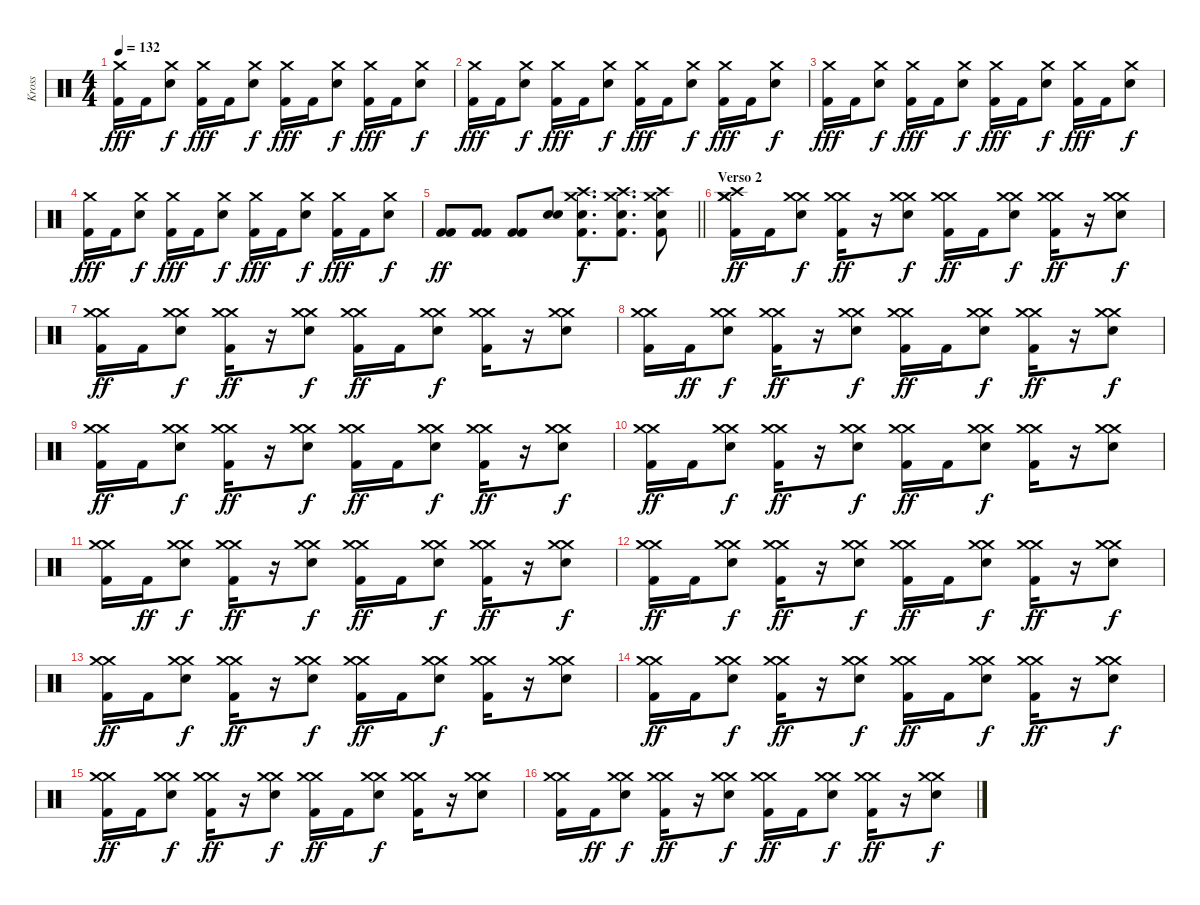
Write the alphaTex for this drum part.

\track ("Kross" "Kross") {instrument percussion}
\staff {score}
\articulation defaults
\ts (4 4)
\tempo 132
\clef neutral
\ks c
("Kick (hit) 2" "Crash medium (hit)").16{dy fff} "Kick (hit) 2".16 ("Crash medium (hit)" "Electric Snare (hit)").8{dy f} ("Kick (hit) 2" "Crash medium (hit)").16{dy fff} "Kick (hit) 2".16 ("Crash medium (hit)" "Electric Snare (hit)").8{dy f} ("Kick (hit) 2" "Crash medium (hit)").16{dy fff} "Kick (hit) 2".16 ("Crash medium (hit)" "Electric Snare (hit)").8{dy f} ("Kick (hit) 2" "Crash medium (hit)").16{dy fff} "Kick (hit) 2".16 ("Crash medium (hit)" "Electric Snare (hit)").8{dy f} |
("Kick (hit) 2" "Crash medium (hit)").16{dy fff} "Kick (hit) 2".16 ("Crash medium (hit)" "Electric Snare (hit)").8{dy f} ("Kick (hit) 2" "Crash medium (hit)").16{dy fff} "Kick (hit) 2".16 ("Crash medium (hit)" "Electric Snare (hit)").8{dy f} ("Kick (hit) 2" "Crash medium (hit)").16{dy fff} "Kick (hit) 2".16 ("Crash medium (hit)" "Electric Snare (hit)").8{dy f} ("Kick (hit) 2" "Crash medium (hit)").16{dy fff} "Kick (hit) 2".16 ("Crash medium (hit)" "Electric Snare (hit)").8{dy f} |
("Kick (hit) 2" "Crash medium (hit)").16{dy fff} "Kick (hit) 2".16 ("Crash medium (hit)" "Electric Snare (hit)").8{dy f} ("Kick (hit) 2" "Crash medium (hit)").16{dy fff} "Kick (hit) 2".16 ("Crash medium (hit)" "Electric Snare (hit)").8{dy f} ("Kick (hit) 2" "Crash medium (hit)").16{dy fff} "Kick (hit) 2".16 ("Crash medium (hit)" "Electric Snare (hit)").8{dy f} ("Kick (hit) 2" "Crash medium (hit)").16{dy fff} "Kick (hit) 2".16 ("Crash medium (hit)" "Electric Snare (hit)").8{dy f} |
("Kick (hit) 2" "Crash medium (hit)").16{dy fff} "Kick (hit) 2".16 ("Crash medium (hit)" "Electric Snare (hit)").8{dy f} ("Kick (hit) 2" "Crash medium (hit)").16{dy fff} "Kick (hit) 2".16 ("Crash medium (hit)" "Electric Snare (hit)").8{dy f} ("Kick (hit) 2" "Crash medium (hit)").16{dy fff} "Kick (hit) 2".16 ("Crash medium (hit)" "Electric Snare (hit)").8{dy f} ("Kick (hit) 2" "Crash medium (hit)").16{dy fff} "Kick (hit) 2".16 ("Crash medium (hit)" "Electric Snare (hit)").8{dy f} |
\barLineRight lightlight
("Kick (hit) 2" "Kick (hit) 2").8{dy ff} ("Kick (hit) 2" "Kick (hit) 2").8 ("Kick (hit) 2" "Kick (hit) 2").8 ("Electric Snare (hit)" "Electric Snare (hit)").8 ("Kick (hit) 2" "Crash high (hit)" "Crash medium (hit)" "Electric Snare (hit)").8{d dy f} ("Kick (hit) 2" "Crash high (hit)" "Crash medium (hit)" "Electric Snare (hit)").8{d} ("Kick (hit) 2" "Crash high (hit)" "Crash medium (hit)" "Electric Snare (hit)").8 |
\section ("" "Verso 2")
("Crash high (hit)" "Kick (hit) 2" "Crash medium (hit)" "Crash medium (hit)").16{dy ff} "Kick (hit) 2".16 ("Crash medium (hit)" "Crash medium (hit)" "Electric Snare (hit)").8{dy f} ("Kick (hit) 2" "Crash medium (hit)" "Crash medium (hit)").16{dy ff} r.16 ("Crash medium (hit)" "Crash medium (hit)" "Electric Snare (hit)").8{dy f} ("Kick (hit) 2" "Crash medium (hit)" "Crash medium (hit)").16{dy ff} "Kick (hit) 2".16 ("Crash medium (hit)" "Crash medium (hit)" "Electric Snare (hit)").8{dy f} ("Kick (hit) 2" "Crash medium (hit)" "Crash medium (hit)").16{dy ff} r.16 ("Crash medium (hit)" "Crash medium (hit)" "Electric Snare (hit)").8{dy f} |
("Kick (hit) 2" "Crash medium (hit)" "Crash medium (hit)").16{dy ff} "Kick (hit) 2".16 ("Crash medium (hit)" "Crash medium (hit)" "Electric Snare (hit)").8{dy f} ("Kick (hit) 2" "Crash medium (hit)" "Crash medium (hit)").16{dy ff} r.16 ("Crash medium (hit)" "Crash medium (hit)" "Electric Snare (hit)").8{dy f} ("Kick (hit) 2" "Crash medium (hit)" "Crash medium (hit)").16{dy ff} "Kick (hit) 2".16 ("Crash medium (hit)" "Crash medium (hit)" "Electric Snare (hit)").8{dy f} ("Kick (hit) 2" "Crash medium (hit)" "Crash medium (hit)").16 r.16 ("Crash medium (hit)" "Crash medium (hit)" "Electric Snare (hit)").8 |
("Kick (hit) 2" "Crash medium (hit)" "Crash medium (hit)").16 "Kick (hit) 2".16{dy ff} ("Crash medium (hit)" "Crash medium (hit)" "Electric Snare (hit)").8{dy f} ("Kick (hit) 2" "Crash medium (hit)" "Crash medium (hit)").16{dy ff} r.16 ("Crash medium (hit)" "Crash medium (hit)" "Electric Snare (hit)").8{dy f} ("Kick (hit) 2" "Crash medium (hit)" "Crash medium (hit)").16{dy ff} "Kick (hit) 2".16 ("Crash medium (hit)" "Crash medium (hit)" "Electric Snare (hit)").8{dy f} ("Kick (hit) 2" "Crash medium (hit)" "Crash medium (hit)").16{dy ff} r.16 ("Crash medium (hit)" "Crash medium (hit)" "Electric Snare (hit)").8{dy f} |
("Kick (hit) 2" "Crash medium (hit)" "Crash medium (hit)").16{dy ff} "Kick (hit) 2".16 ("Crash medium (hit)" "Crash medium (hit)" "Electric Snare (hit)").8{dy f} ("Kick (hit) 2" "Crash medium (hit)" "Crash medium (hit)").16{dy ff} r.16 ("Crash medium (hit)" "Crash medium (hit)" "Electric Snare (hit)").8{dy f} ("Kick (hit) 2" "Crash medium (hit)" "Crash medium (hit)").16{dy ff} "Kick (hit) 2".16 ("Crash medium (hit)" "Crash medium (hit)" "Electric Snare (hit)").8{dy f} ("Kick (hit) 2" "Crash medium (hit)" "Crash medium (hit)").16{dy ff} r.16 ("Crash medium (hit)" "Crash medium (hit)" "Electric Snare (hit)").8{dy f} |
("Kick (hit) 2" "Crash medium (hit)" "Crash medium (hit)").16{dy ff} "Kick (hit) 2".16 ("Crash medium (hit)" "Crash medium (hit)" "Electric Snare (hit)").8{dy f} ("Kick (hit) 2" "Crash medium (hit)" "Crash medium (hit)").16{dy ff} r.16 ("Crash medium (hit)" "Crash medium (hit)" "Electric Snare (hit)").8{dy f} ("Kick (hit) 2" "Crash medium (hit)" "Crash medium (hit)").16{dy ff} "Kick (hit) 2".16 ("Crash medium (hit)" "Crash medium (hit)" "Electric Snare (hit)").8{dy f} ("Kick (hit) 2" "Crash medium (hit)" "Crash medium (hit)").16 r.16 ("Crash medium (hit)" "Crash medium (hit)" "Electric Snare (hit)").8 |
("Kick (hit) 2" "Crash medium (hit)" "Crash medium (hit)").16 "Kick (hit) 2".16{dy ff} ("Crash medium (hit)" "Crash medium (hit)" "Electric Snare (hit)").8{dy f} ("Kick (hit) 2" "Crash medium (hit)" "Crash medium (hit)").16{dy ff} r.16 ("Crash medium (hit)" "Crash medium (hit)" "Electric Snare (hit)").8{dy f} ("Kick (hit) 2" "Crash medium (hit)" "Crash medium (hit)").16{dy ff} "Kick (hit) 2".16 ("Crash medium (hit)" "Crash medium (hit)" "Electric Snare (hit)").8{dy f} ("Kick (hit) 2" "Crash medium (hit)" "Crash medium (hit)").16{dy ff} r.16 ("Crash medium (hit)" "Crash medium (hit)" "Electric Snare (hit)").8{dy f} |
("Kick (hit) 2" "Crash medium (hit)" "Crash medium (hit)").16{dy ff} "Kick (hit) 2".16 ("Crash medium (hit)" "Crash medium (hit)" "Electric Snare (hit)").8{dy f} ("Kick (hit) 2" "Crash medium (hit)" "Crash medium (hit)").16{dy ff} r.16 ("Crash medium (hit)" "Crash medium (hit)" "Electric Snare (hit)").8{dy f} ("Kick (hit) 2" "Crash medium (hit)" "Crash medium (hit)").16{dy ff} "Kick (hit) 2".16 ("Crash medium (hit)" "Crash medium (hit)" "Electric Snare (hit)").8{dy f} ("Kick (hit) 2" "Crash medium (hit)" "Crash medium (hit)").16{dy ff} r.16 ("Crash medium (hit)" "Crash medium (hit)" "Electric Snare (hit)").8{dy f} |
("Kick (hit) 2" "Crash medium (hit)" "Crash medium (hit)").16{dy ff} "Kick (hit) 2".16 ("Crash medium (hit)" "Crash medium (hit)" "Electric Snare (hit)").8{dy f} ("Kick (hit) 2" "Crash medium (hit)" "Crash medium (hit)").16{dy ff} r.16 ("Crash medium (hit)" "Crash medium (hit)" "Electric Snare (hit)").8{dy f} ("Kick (hit) 2" "Crash medium (hit)" "Crash medium (hit)").16{dy ff} "Kick (hit) 2".16 ("Crash medium (hit)" "Crash medium (hit)" "Electric Snare (hit)").8{dy f} ("Kick (hit) 2" "Crash medium (hit)" "Crash medium (hit)").16 r.16 ("Crash medium (hit)" "Crash medium (hit)" "Electric Snare (hit)").8 |
("Kick (hit) 2" "Crash medium (hit)" "Crash medium (hit)").16{dy ff} "Kick (hit) 2".16 ("Crash medium (hit)" "Crash medium (hit)" "Electric Snare (hit)").8{dy f} ("Kick (hit) 2" "Crash medium (hit)" "Crash medium (hit)").16{dy ff} r.16 ("Crash medium (hit)" "Crash medium (hit)" "Electric Snare (hit)").8{dy f} ("Kick (hit) 2" "Crash medium (hit)" "Crash medium (hit)").16{dy ff} "Kick (hit) 2".16 ("Crash medium (hit)" "Crash medium (hit)" "Electric Snare (hit)").8{dy f} ("Kick (hit) 2" "Crash medium (hit)" "Crash medium (hit)").16{dy ff} r.16 ("Crash medium (hit)" "Crash medium (hit)" "Electric Snare (hit)").8{dy f} |
("Kick (hit) 2" "Crash medium (hit)" "Crash medium (hit)").16{dy ff} "Kick (hit) 2".16 ("Crash medium (hit)" "Crash medium (hit)" "Electric Snare (hit)").8{dy f} ("Kick (hit) 2" "Crash medium (hit)" "Crash medium (hit)").16{dy ff} r.16 ("Crash medium (hit)" "Crash medium (hit)" "Electric Snare (hit)").8{dy f} ("Kick (hit) 2" "Crash medium (hit)" "Crash medium (hit)").16{dy ff} "Kick (hit) 2".16 ("Crash medium (hit)" "Crash medium (hit)" "Electric Snare (hit)").8{dy f} ("Kick (hit) 2" "Crash medium (hit)" "Crash medium (hit)").16 r.16 ("Crash medium (hit)" "Crash medium (hit)" "Electric Snare (hit)").8 |
("Kick (hit) 2" "Crash medium (hit)" "Crash medium (hit)").16 "Kick (hit) 2".16{dy ff} ("Crash medium (hit)" "Crash medium (hit)" "Electric Snare (hit)").8{dy f} ("Kick (hit) 2" "Crash medium (hit)" "Crash medium (hit)").16{dy ff} r.16 ("Crash medium (hit)" "Crash medium (hit)" "Electric Snare (hit)").8{dy f} ("Kick (hit) 2" "Crash medium (hit)" "Crash medium (hit)").16{dy ff} "Kick (hit) 2".16 ("Crash medium (hit)" "Crash medium (hit)" "Electric Snare (hit)").8{dy f} ("Kick (hit) 2" "Crash medium (hit)" "Crash medium (hit)").16{dy ff} r.16 ("Crash medium (hit)" "Crash medium (hit)" "Electric Snare (hit)").8{dy f}
